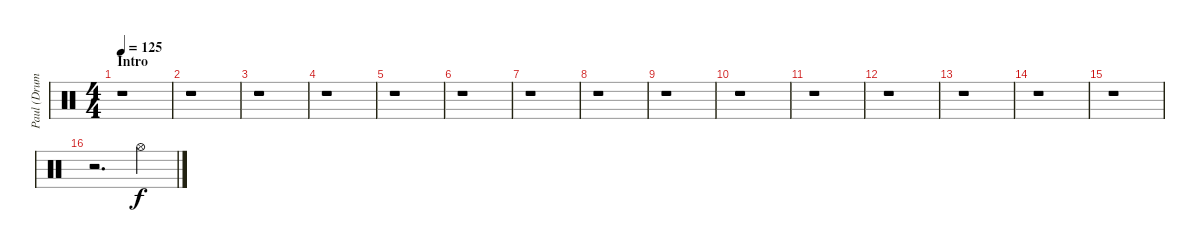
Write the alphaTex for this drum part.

\track ("Paul (Drums)" "Paul (Drum") {instrument percussion}
\staff {score}
\articulation defaults
\ts (4 4)
\section ("" "Intro")
\tempo 125
\clef neutral
\ks c
r.1{dy f} |
r.1 |
r.1 |
r.1 |
r.1 |
r.1 |
r.1 |
r.1 |
r.1 |
r.1 |
r.1 |
r.1 |
r.1 |
r.1 |
r.1 |
r.2{d} "Hi-Hat (open)".4
